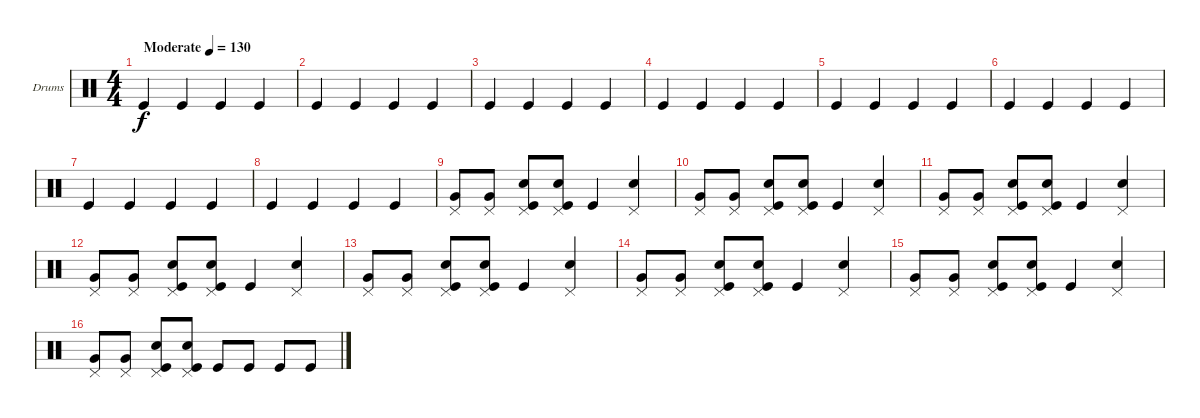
\bracketExtendMode groupsimilarinstruments
\firstSystemTrackNameOrientation horizontal
\otherSystemsTrackNameOrientation horizontal
\track ("Drumkit" "Drums") {instrument percussion}
\staff {score}
\articulation defaults
\ts (4 4)
\beaming (8 2 2 2 2)
\tempo (130 "Moderate")
\clef neutral
\ks c "Kick (hit)".4{dy f} "Kick (hit)".4 "Kick (hit)".4 "Kick (hit)".4
|
"Kick (hit)".4 "Kick (hit)".4 "Kick (hit)".4 "Kick (hit)".4 |
"Kick (hit)".4 "Kick (hit)".4 "Kick (hit)".4 "Kick (hit)".4 |
"Kick (hit)".4 "Kick (hit)".4 "Kick (hit)".4 "Kick (hit)".4 |
"Kick (hit)".4 "Kick (hit)".4 "Kick (hit)".4 "Kick (hit)".4 |
"Kick (hit)".4 "Kick (hit)".4 "Kick (hit)".4 "Kick (hit)".4 |
"Kick (hit)".4 "Kick (hit)".4 "Kick (hit)".4 "Kick (hit)".4 |
"Kick (hit)".4 "Kick (hit)".4 "Kick (hit)".4 "Kick (hit)".4 |
("Very Low Tom (hit)" "Pedal Hi-Hat (hit)").8 ("Pedal Hi-Hat (hit)" "Very Low Tom (hit)").8 ("Kick (hit)" "Snare (hit) 2" "Pedal Hi-Hat (hit)").8 ("Kick (hit)" "Snare (hit) 2" "Pedal Hi-Hat (hit)").8 "Kick (hit)".4 ("Snare (hit) 2" "Pedal Hi-Hat (hit)").4 |
("Very Low Tom (hit)" "Pedal Hi-Hat (hit)").8 ("Pedal Hi-Hat (hit)" "Very Low Tom (hit)").8 ("Kick (hit)" "Snare (hit) 2" "Pedal Hi-Hat (hit)").8 ("Kick (hit)" "Snare (hit) 2" "Pedal Hi-Hat (hit)").8 "Kick (hit)".4 ("Snare (hit) 2" "Pedal Hi-Hat (hit)").4 |
("Very Low Tom (hit)" "Pedal Hi-Hat (hit)").8 ("Pedal Hi-Hat (hit)" "Very Low Tom (hit)").8 ("Kick (hit)" "Snare (hit) 2" "Pedal Hi-Hat (hit)").8 ("Kick (hit)" "Snare (hit) 2" "Pedal Hi-Hat (hit)").8 "Kick (hit)".4 ("Snare (hit) 2" "Pedal Hi-Hat (hit)").4 |
("Very Low Tom (hit)" "Pedal Hi-Hat (hit)").8 ("Pedal Hi-Hat (hit)" "Very Low Tom (hit)").8 ("Kick (hit)" "Snare (hit) 2" "Pedal Hi-Hat (hit)").8 ("Kick (hit)" "Snare (hit) 2" "Pedal Hi-Hat (hit)").8 "Kick (hit)".4 ("Snare (hit) 2" "Pedal Hi-Hat (hit)").4 |
("Very Low Tom (hit)" "Pedal Hi-Hat (hit)").8 ("Pedal Hi-Hat (hit)" "Very Low Tom (hit)").8 ("Kick (hit)" "Snare (hit) 2" "Pedal Hi-Hat (hit)").8 ("Kick (hit)" "Snare (hit) 2" "Pedal Hi-Hat (hit)").8 "Kick (hit)".4 ("Snare (hit) 2" "Pedal Hi-Hat (hit)").4 |
("Very Low Tom (hit)" "Pedal Hi-Hat (hit)").8 ("Pedal Hi-Hat (hit)" "Very Low Tom (hit)").8 ("Kick (hit)" "Snare (hit) 2" "Pedal Hi-Hat (hit)").8 ("Kick (hit)" "Snare (hit) 2" "Pedal Hi-Hat (hit)").8 "Kick (hit)".4 ("Snare (hit) 2" "Pedal Hi-Hat (hit)").4 |
("Very Low Tom (hit)" "Pedal Hi-Hat (hit)").8 ("Pedal Hi-Hat (hit)" "Very Low Tom (hit)").8 ("Kick (hit)" "Snare (hit) 2" "Pedal Hi-Hat (hit)").8 ("Kick (hit)" "Snare (hit) 2" "Pedal Hi-Hat (hit)").8 "Kick (hit)".4 ("Snare (hit) 2" "Pedal Hi-Hat (hit)").4 |
("Very Low Tom (hit)" "Pedal Hi-Hat (hit)").8 ("Pedal Hi-Hat (hit)" "Very Low Tom (hit)").8 ("Kick (hit)" "Snare (hit) 2" "Pedal Hi-Hat (hit)").8 ("Kick (hit)" "Snare (hit) 2" "Pedal Hi-Hat (hit)").8 "Kick (hit)".8 "Kick (hit)".8 "Kick (hit)".8 "Kick (hit)".8
